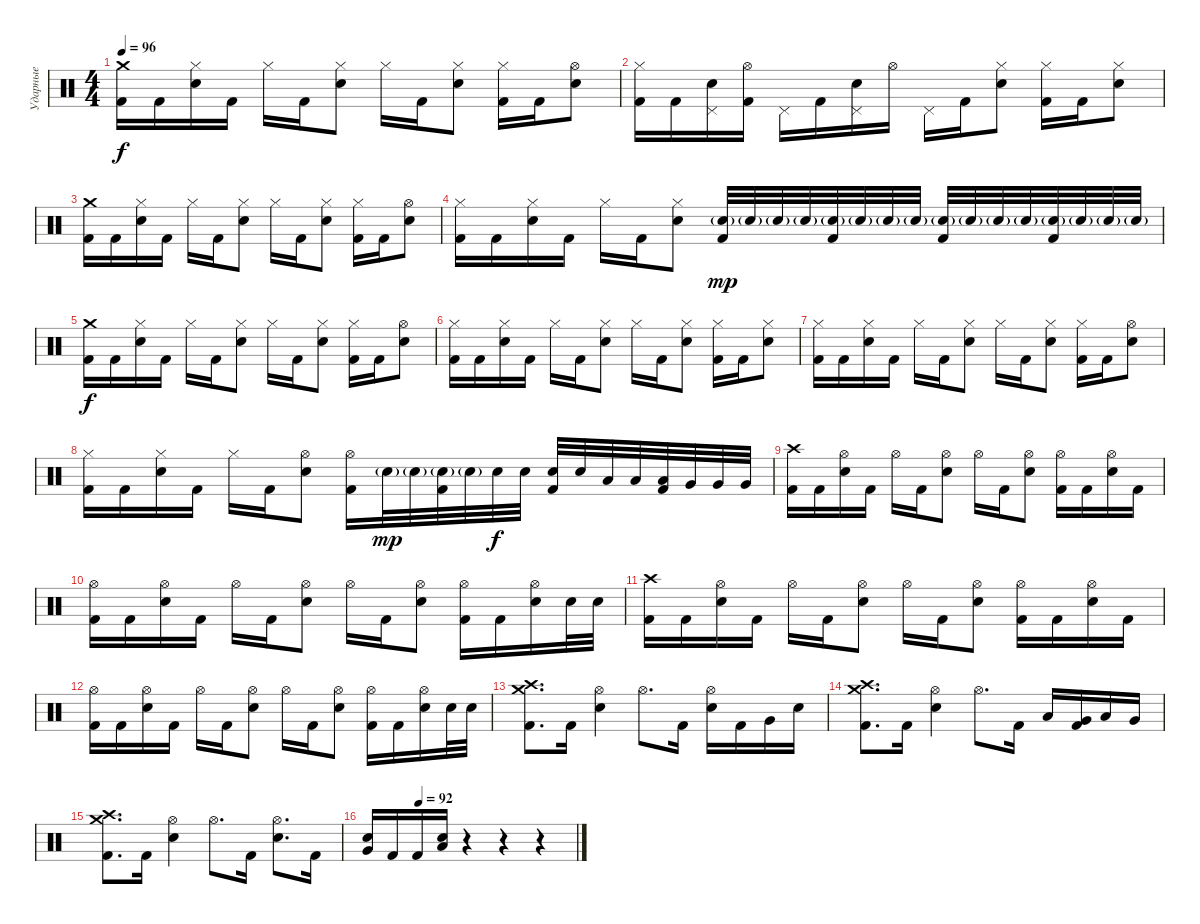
\track ("Ударные" "Ударные") {instrument percussion}
\staff {score}
\articulation defaults
\ts (4 4)
\tempo 96
\clef neutral
\ks c
("Crash medium (hit)" "Kick (hit) 2").16{dy f} "Kick (hit) 2".16 ("Hi-Hat (closed)" "Electric Snare (hit)").16 "Kick (hit) 2".16 "Hi-Hat (closed)".16 "Kick (hit) 2".16 ("Hi-Hat (closed)" "Electric Snare (hit)").8 "Hi-Hat (closed)".16 "Kick (hit) 2".16 ("Hi-Hat (closed)" "Electric Snare (hit)").8 ("Hi-Hat (closed)" "Kick (hit) 2").16 "Kick (hit) 2".16 ("Hi-Hat (open)" "Electric Snare (hit)").8 |
("Hi-Hat (closed)" "Kick (hit) 2").16 "Kick (hit) 2".16 ("Pedal Hi-Hat (hit)" "Electric Snare (hit)").16 ("Hi-Hat (open)" "Kick (hit) 2").16 "Pedal Hi-Hat (hit)".16 "Kick (hit) 2".16 ("Pedal Hi-Hat (hit)" "Electric Snare (hit)").16 "Hi-Hat (open)".16 "Pedal Hi-Hat (hit)".16 "Kick (hit) 2".16 ("Hi-Hat (closed)" "Electric Snare (hit)").8 ("Hi-Hat (closed)" "Kick (hit) 2").16 "Kick (hit) 2".16 ("Hi-Hat (closed)" "Electric Snare (hit)").8 |
("Crash medium (hit)" "Kick (hit) 2").16 "Kick (hit) 2".16 ("Hi-Hat (closed)" "Electric Snare (hit)").16 "Kick (hit) 2".16 "Hi-Hat (closed)".16 "Kick (hit) 2".16 ("Hi-Hat (closed)" "Electric Snare (hit)").8 "Hi-Hat (closed)".16 "Kick (hit) 2".16 ("Hi-Hat (closed)" "Electric Snare (hit)").8 ("Hi-Hat (closed)" "Kick (hit) 2").16 "Kick (hit) 2".16 ("Hi-Hat (open)" "Electric Snare (hit)").8 |
("Hi-Hat (closed)" "Kick (hit) 2").16 "Kick (hit) 2".16 ("Hi-Hat (closed)" "Electric Snare (hit)").16 "Kick (hit) 2".16 "Hi-Hat (closed)".16 "Kick (hit) 2".16 ("Hi-Hat (closed)" "Electric Snare (hit)").8 ("Electric Snare (hit)"{g} "Kick (hit) 2").32{dy mp} "Electric Snare (hit)"{g}.32 "Electric Snare (hit)"{g}.32 "Electric Snare (hit)"{g}.32 ("Electric Snare (hit)"{g} "Kick (hit) 2").32 "Electric Snare (hit)"{g}.32 "Electric Snare (hit)"{g}.32 "Electric Snare (hit)"{g}.32 ("Electric Snare (hit)"{g} "Kick (hit) 2").32 "Electric Snare (hit)"{g}.32 "Electric Snare (hit)"{g}.32 "Electric Snare (hit)"{g}.32 ("Electric Snare (hit)"{g} "Kick (hit) 2").32 "Electric Snare (hit)"{g}.32 "Electric Snare (hit)"{g}.32 "Electric Snare (hit)"{g}.32 |
("Crash medium (hit)" "Kick (hit) 2").16{dy f} "Kick (hit) 2".16 ("Hi-Hat (closed)" "Electric Snare (hit)").16 "Kick (hit) 2".16 "Hi-Hat (closed)".16 "Kick (hit) 2".16 ("Hi-Hat (closed)" "Electric Snare (hit)").8 "Hi-Hat (closed)".16 "Kick (hit) 2".16 ("Hi-Hat (closed)" "Electric Snare (hit)").8 ("Hi-Hat (closed)" "Kick (hit) 2").16 "Kick (hit) 2".16 ("Hi-Hat (open)" "Electric Snare (hit)").8 |
("Hi-Hat (closed)" "Kick (hit) 2").16 "Kick (hit) 2".16 ("Hi-Hat (closed)" "Electric Snare (hit)").16 "Kick (hit) 2".16 "Hi-Hat (closed)".16 "Kick (hit) 2".16 ("Hi-Hat (closed)" "Electric Snare (hit)").8 "Hi-Hat (closed)".16 "Kick (hit) 2".16 ("Hi-Hat (closed)" "Electric Snare (hit)").8 ("Hi-Hat (closed)" "Kick (hit) 2").16 "Kick (hit) 2".16 ("Hi-Hat (closed)" "Electric Snare (hit)").8 |
("Hi-Hat (closed)" "Kick (hit) 2").16 "Kick (hit) 2".16 ("Hi-Hat (closed)" "Electric Snare (hit)").16 "Kick (hit) 2".16 "Hi-Hat (closed)".16 "Kick (hit) 2".16 ("Hi-Hat (closed)" "Electric Snare (hit)").8 "Hi-Hat (closed)".16 "Kick (hit) 2".16 ("Hi-Hat (closed)" "Electric Snare (hit)").8 ("Hi-Hat (closed)" "Kick (hit) 2").16 "Kick (hit) 2".16 ("Hi-Hat (open)" "Electric Snare (hit)").8 |
("Hi-Hat (closed)" "Kick (hit) 2").16 "Kick (hit) 2".16 ("Hi-Hat (closed)" "Electric Snare (hit)").16 "Kick (hit) 2".16 "Hi-Hat (closed)".16 "Kick (hit) 2".16 ("Hi-Hat (open)" "Electric Snare (hit)").8 ("Hi-Hat (open)" "Kick (hit) 2").16 "Electric Snare (hit)"{g}.32{dy mp} "Electric Snare (hit)"{g}.32 ("Electric Snare (hit)"{g} "Kick (hit) 2").32 "Electric Snare (hit)"{g}.32 "Electric Snare (hit)".32{dy f} "Electric Snare (hit)".32 ("Electric Snare (hit)" "Kick (hit) 2").32 "Electric Snare (hit)".32 "Low Tom (hit)".32 "Low Tom (hit)".32 ("Low Tom (hit)" "Kick (hit) 2").32 "Very Low Tom (hit)".32 "Very Low Tom (hit)".32 "Very Low Tom (hit)".32 |
("Crash high (hit)" "Kick (hit) 2").16 "Kick (hit) 2".16 ("Hi-Hat (open)" "Electric Snare (hit)").16 "Kick (hit) 2".16 "Hi-Hat (open)".16 "Kick (hit) 2".16 ("Hi-Hat (open)" "Electric Snare (hit)").8 "Hi-Hat (open)".16 "Kick (hit) 2".16 ("Hi-Hat (open)" "Electric Snare (hit)").8 ("Hi-Hat (open)" "Kick (hit) 2").16 "Kick (hit) 2".16 ("Hi-Hat (open)" "Electric Snare (hit)").16 "Kick (hit) 2".16 |
("Hi-Hat (open)" "Kick (hit) 2").16 "Kick (hit) 2".16 ("Hi-Hat (open)" "Electric Snare (hit)").16 "Kick (hit) 2".16 "Hi-Hat (open)".16 "Kick (hit) 2".16 ("Hi-Hat (open)" "Electric Snare (hit)").8 "Hi-Hat (open)".16 "Kick (hit) 2".16 ("Hi-Hat (open)" "Electric Snare (hit)").8 ("Hi-Hat (open)" "Kick (hit) 2").16 "Kick (hit) 2".16 ("Hi-Hat (open)" "Electric Snare (hit)").16 "Electric Snare (hit)".32 "Electric Snare (hit)".32 |
("Crash high (hit)" "Kick (hit) 2").16 "Kick (hit) 2".16 ("Hi-Hat (open)" "Electric Snare (hit)").16 "Kick (hit) 2".16 "Hi-Hat (open)".16 "Kick (hit) 2".16 ("Hi-Hat (open)" "Electric Snare (hit)").8 "Hi-Hat (open)".16 "Kick (hit) 2".16 ("Hi-Hat (open)" "Electric Snare (hit)").8 ("Hi-Hat (open)" "Kick (hit) 2").16 "Kick (hit) 2".16 ("Hi-Hat (open)" "Electric Snare (hit)").16 "Kick (hit) 2".16 |
("Hi-Hat (open)" "Kick (hit) 2").16 "Kick (hit) 2".16 ("Hi-Hat (open)" "Electric Snare (hit)").16 "Kick (hit) 2".16 "Hi-Hat (open)".16 "Kick (hit) 2".16 ("Hi-Hat (open)" "Electric Snare (hit)").8 "Hi-Hat (open)".16 "Kick (hit) 2".16 ("Hi-Hat (open)" "Electric Snare (hit)").8 ("Hi-Hat (open)" "Kick (hit) 2").16 "Kick (hit) 2".16 ("Hi-Hat (open)" "Electric Snare (hit)").16 "Electric Snare (hit)".32 "Electric Snare (hit)".32 |
("Crash high (hit)" "Crash medium (hit)" "Kick (hit) 2").8{d} "Kick (hit) 2".16 ("Hi-Hat (open)" "Electric Snare (hit)").4 "Hi-Hat (open)".8{d} "Kick (hit) 2".16 ("Hi-Hat (open)" "Electric Snare (hit)").16 "Kick (hit) 2".16 "Very Low Tom (hit)".16 "Electric Snare (hit)".16 |
("Crash high (hit)" "Crash medium (hit)" "Kick (hit) 2").8{d} "Kick (hit) 2".16 ("Hi-Hat (open)" "Electric Snare (hit)").4 "Hi-Hat (open)".8{d} "Kick (hit) 2".16 "Low Tom (hit)".16 ("Very Low Tom (hit)" "Kick (hit) 2").16 "Low Floor Tom (hit)".16 "Very Low Tom (hit)".16 |
("Crash high (hit)" "Crash medium (hit)" "Kick (hit) 2").8{d} "Kick (hit) 2".16 ("Hi-Hat (open)" "Electric Snare (hit)").4 "Hi-Hat (open)".8{d} "Kick (hit) 2".16 ("Hi-Hat (open)" "Electric Snare (hit)").8{d} "Kick (hit) 2".16 |
\tempo (92 0.25)
("Very Low Tom (hit)" "Electric Snare (hit)").16 "Kick (hit) 2".16 "Kick (hit) 2".16 ("Low Floor Tom (hit)" "Electric Snare (hit)").16 r.4 r.4 r.4
